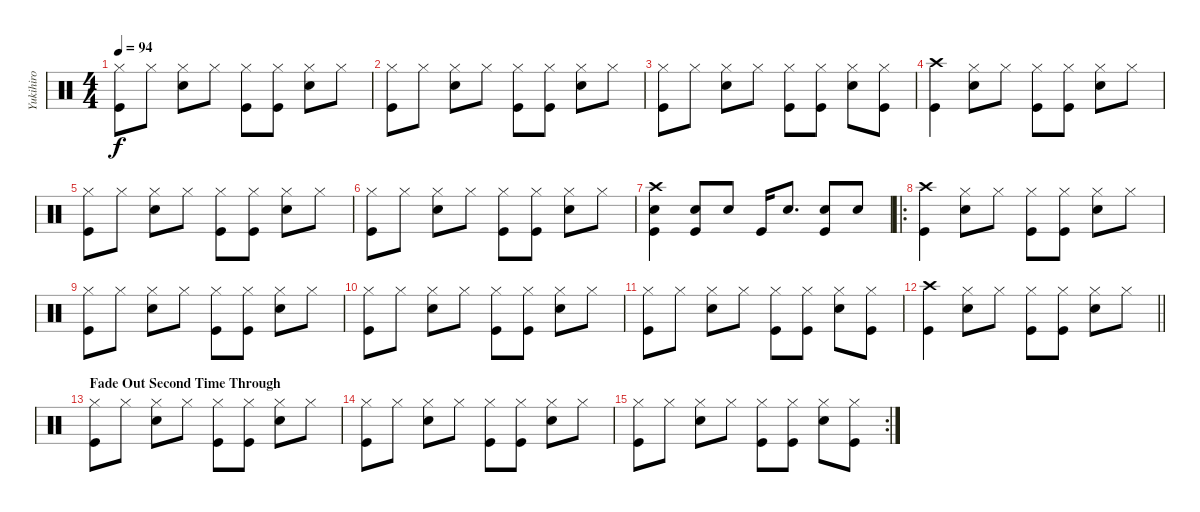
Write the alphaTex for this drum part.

\track ("Yukihiro" "Yukihiro") {instrument percussion}
\staff {score}
\articulation defaults
\ts (4 4)
\tempo 94
\clef neutral
\ks c
("Hi-Hat (closed)" "Kick (hit)").8{dy f} "Hi-Hat (closed)".8 ("Hi-Hat (closed)" "Snare (hit) 2").8 "Hi-Hat (closed)".8 ("Hi-Hat (closed)" "Kick (hit)").8 ("Hi-Hat (closed)" "Kick (hit)").8 ("Hi-Hat (closed)" "Snare (hit) 2").8 "Hi-Hat (closed)".8 |
("Hi-Hat (closed)" "Kick (hit)").8 "Hi-Hat (closed)".8 ("Hi-Hat (closed)" "Snare (hit) 2").8 "Hi-Hat (closed)".8 ("Hi-Hat (closed)" "Kick (hit)").8 ("Hi-Hat (closed)" "Kick (hit)").8 ("Hi-Hat (closed)" "Snare (hit) 2").8 "Hi-Hat (closed)".8 |
("Hi-Hat (closed)" "Kick (hit)").8 "Hi-Hat (closed)".8 ("Hi-Hat (closed)" "Snare (hit) 2").8 "Hi-Hat (closed)".8 ("Hi-Hat (closed)" "Kick (hit)").8 ("Hi-Hat (closed)" "Kick (hit)").8 ("Hi-Hat (closed)" "Snare (hit) 2").8 ("Hi-Hat (closed)" "Kick (hit)").8 |
("Crash high (hit)" "Kick (hit)").4 ("Hi-Hat (closed)" "Snare (hit) 2").8 "Hi-Hat (closed)".8 ("Hi-Hat (closed)" "Kick (hit)").8 ("Hi-Hat (closed)" "Kick (hit)").8 ("Hi-Hat (closed)" "Snare (hit) 2").8 "Hi-Hat (closed)".8 |
("Hi-Hat (closed)" "Kick (hit)").8 "Hi-Hat (closed)".8 ("Hi-Hat (closed)" "Snare (hit) 2").8 "Hi-Hat (closed)".8 ("Hi-Hat (closed)" "Kick (hit)").8 ("Kick (hit)" "Hi-Hat (closed)").8 ("Hi-Hat (closed)" "Snare (hit) 2").8 "Hi-Hat (closed)".8 |
("Hi-Hat (closed)" "Kick (hit)").8 "Hi-Hat (closed)".8 ("Hi-Hat (closed)" "Snare (hit) 2").8 "Hi-Hat (closed)".8 ("Hi-Hat (closed)" "Kick (hit)").8 ("Kick (hit)" "Hi-Hat (closed)").8 ("Hi-Hat (closed)" "Snare (hit) 2").8 "Hi-Hat (closed)".8 |
("Kick (hit)" "Snare (hit) 2" "Crash high (hit)").4 ("Kick (hit)" "Snare (hit) 2").8 "Snare (hit) 2".8 "Kick (hit)".16 "Snare (hit) 2".8{d} ("Kick (hit)" "Snare (hit) 2").8 "Snare (hit) 2".8 |
\ro
("Crash high (hit)" "Kick (hit)").4 ("Snare (hit) 2" "Hi-Hat (closed)").8 "Hi-Hat (closed)".8 ("Kick (hit)" "Hi-Hat (closed)").8 ("Hi-Hat (closed)" "Kick (hit)").8 ("Hi-Hat (closed)" "Snare (hit) 2").8 "Hi-Hat (closed)".8 |
("Hi-Hat (closed)" "Kick (hit)").8 "Hi-Hat (closed)".8 ("Hi-Hat (closed)" "Snare (hit) 2").8 "Hi-Hat (closed)".8 ("Hi-Hat (closed)" "Kick (hit)").8 ("Hi-Hat (closed)" "Kick (hit)").8 ("Hi-Hat (closed)" "Snare (hit) 2").8 "Hi-Hat (closed)".8 |
("Hi-Hat (closed)" "Kick (hit)").8 "Hi-Hat (closed)".8 ("Hi-Hat (closed)" "Snare (hit) 2").8 "Hi-Hat (closed)".8 ("Hi-Hat (closed)" "Kick (hit)").8 ("Hi-Hat (closed)" "Kick (hit)").8 ("Hi-Hat (closed)" "Snare (hit) 2").8 "Hi-Hat (closed)".8 |
("Hi-Hat (closed)" "Kick (hit)").8 "Hi-Hat (closed)".8 ("Hi-Hat (closed)" "Snare (hit) 2").8 "Hi-Hat (closed)".8 ("Hi-Hat (closed)" "Kick (hit)").8 ("Hi-Hat (closed)" "Kick (hit)").8 ("Hi-Hat (closed)" "Snare (hit) 2").8 ("Hi-Hat (closed)" "Kick (hit)").8 |
\barLineRight lightlight
("Crash high (hit)" "Kick (hit)").4 ("Snare (hit) 2" "Hi-Hat (closed)").8 "Hi-Hat (closed)".8 ("Kick (hit)" "Hi-Hat (closed)").8 ("Hi-Hat (closed)" "Kick (hit)").8 ("Hi-Hat (closed)" "Snare (hit) 2").8 "Hi-Hat (closed)".8 |
\section ("" "Fade Out Second Time Through")
("Hi-Hat (closed)" "Kick (hit)").8 "Hi-Hat (closed)".8 ("Hi-Hat (closed)" "Snare (hit) 2").8 "Hi-Hat (closed)".8 ("Hi-Hat (closed)" "Kick (hit)").8 ("Hi-Hat (closed)" "Kick (hit)").8 ("Hi-Hat (closed)" "Snare (hit) 2").8 "Hi-Hat (closed)".8 |
("Hi-Hat (closed)" "Kick (hit)").8 "Hi-Hat (closed)".8 ("Hi-Hat (closed)" "Snare (hit) 2").8 "Hi-Hat (closed)".8 ("Hi-Hat (closed)" "Kick (hit)").8 ("Hi-Hat (closed)" "Kick (hit)").8 ("Hi-Hat (closed)" "Snare (hit) 2").8 "Hi-Hat (closed)".8 |
\rc 2
("Hi-Hat (closed)" "Kick (hit)").8 "Hi-Hat (closed)".8 ("Hi-Hat (closed)" "Snare (hit) 2").8 "Hi-Hat (closed)".8 ("Hi-Hat (closed)" "Kick (hit)").8 ("Hi-Hat (closed)" "Kick (hit)").8 ("Hi-Hat (closed)" "Snare (hit) 2").8 ("Hi-Hat (closed)" "Kick (hit)").8
